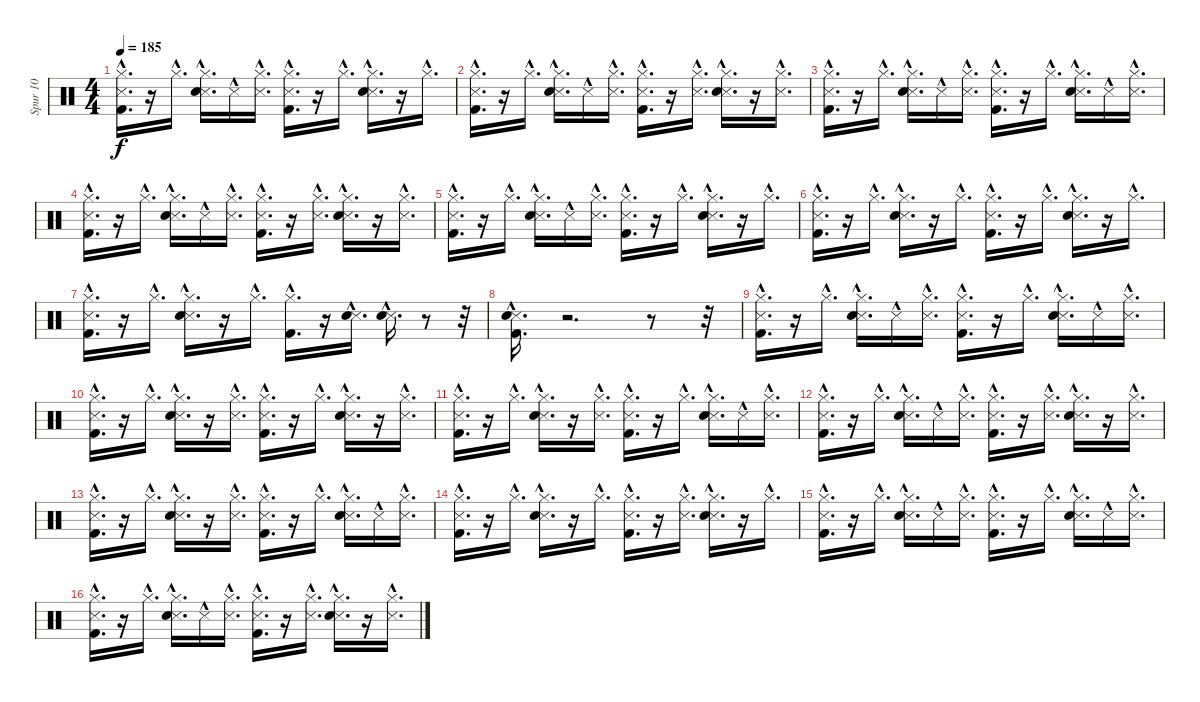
\track ("Spur 10" "Spur 10") {instrument percussion}
\staff {score}
\articulation defaults
\ts (4 4)
\tempo 185
\clef neutral
\ks c
("Metronome (hit)"{hac} "Hi-Hat (closed)"{hac} "Kick (hit) 2"{hac}).16{d dy f} r.16 "Hi-Hat (closed)"{hac}.16{d} ("Metronome (hit)"{hac} "Hi-Hat (closed)"{hac} "Snare (hit) 2"{hac}).16{d} "Metronome (hit)"{hac}.16 ("Metronome (hit)"{hac} "Hi-Hat (closed)"{hac}).16{d} ("Metronome (hit)"{hac} "Hi-Hat (closed)"{hac} "Kick (hit) 2"{hac}).16{d} r.16 "Hi-Hat (closed)"{hac}.16{d} ("Metronome (hit)"{hac} "Hi-Hat (closed)"{hac} "Snare (hit) 2"{hac}).16{d} r.16 "Hi-Hat (closed)"{hac}.16{d} |
("Metronome (hit)"{hac} "Kick (hit) 2"{hac} "Hi-Hat (closed)"{hac}).16{d} r.16 "Hi-Hat (closed)"{hac}.16{d} ("Metronome (hit)"{hac} "Snare (hit) 2"{hac} "Hi-Hat (closed)"{hac}).16{d} "Metronome (hit)"{hac}.16 ("Metronome (hit)"{hac} "Hi-Hat (closed)"{hac}).16{d} ("Metronome (hit)"{hac} "Kick (hit) 2"{hac} "Hi-Hat (closed)"{hac}).16{d} r.16 ("Metronome (hit)"{hac} "Hi-Hat (closed)"{hac}).16{d} ("Metronome (hit)"{hac} "Snare (hit) 2"{hac} "Hi-Hat (closed)"{hac}).16{d} r.16 ("Metronome (hit)"{hac} "Hi-Hat (closed)"{hac}).16{d} |
("Metronome (hit)"{hac} "Kick (hit) 2"{hac} "Hi-Hat (closed)"{hac}).16{d} r.16 "Hi-Hat (closed)"{hac}.16{d} ("Metronome (hit)"{hac} "Snare (hit) 2"{hac} "Hi-Hat (closed)"{hac}).16{d} "Metronome (hit)"{hac}.16 ("Metronome (hit)"{hac} "Hi-Hat (closed)"{hac}).16{d} ("Metronome (hit)"{hac} "Kick (hit) 2"{hac} "Hi-Hat (closed)"{hac}).16{d} r.16 "Hi-Hat (closed)"{hac}.16{d} ("Metronome (hit)"{hac} "Snare (hit) 2"{hac} "Hi-Hat (closed)"{hac}).16{d} "Metronome (hit)"{hac}.16 ("Metronome (hit)"{hac} "Hi-Hat (closed)"{hac}).16{d} |
("Metronome (hit)"{hac} "Kick (hit) 2"{hac} "Hi-Hat (closed)"{hac}).16{d} r.16 "Hi-Hat (closed)"{hac}.16{d} ("Metronome (hit)"{hac} "Snare (hit) 2"{hac} "Hi-Hat (closed)"{hac}).16{d} "Metronome (hit)"{hac}.16 ("Metronome (hit)"{hac} "Hi-Hat (closed)"{hac}).16{d} ("Metronome (hit)"{hac} "Kick (hit) 2"{hac} "Hi-Hat (closed)"{hac}).16{d} r.16 ("Metronome (hit)"{hac} "Hi-Hat (closed)"{hac}).16{d} ("Metronome (hit)"{hac} "Snare (hit) 2"{hac} "Hi-Hat (closed)"{hac}).16{d} r.16 ("Metronome (hit)"{hac} "Hi-Hat (closed)"{hac}).16{d} |
("Metronome (hit)"{hac} "Hi-Hat (closed)"{hac} "Kick (hit) 2"{hac}).16{d} r.16 "Hi-Hat (closed)"{hac}.16{d} ("Metronome (hit)"{hac} "Hi-Hat (closed)"{hac} "Snare (hit) 2"{hac}).16{d} "Metronome (hit)"{hac}.16 ("Metronome (hit)"{hac} "Hi-Hat (closed)"{hac}).16{d} ("Metronome (hit)"{hac} "Hi-Hat (closed)"{hac} "Kick (hit) 2"{hac}).16{d} r.16 "Hi-Hat (closed)"{hac}.16{d} ("Metronome (hit)"{hac} "Hi-Hat (closed)"{hac} "Snare (hit) 2"{hac}).16{d} r.16 "Hi-Hat (closed)"{hac}.16{d} |
("Metronome (hit)"{hac} "Kick (hit) 2"{hac} "Hi-Hat (closed)"{hac}).16{d} r.16 "Hi-Hat (closed)"{hac}.16{d} ("Metronome (hit)"{hac} "Snare (hit) 2"{hac} "Hi-Hat (closed)"{hac}).16{d} r.16 "Hi-Hat (closed)"{hac}.16{d} ("Metronome (hit)"{hac} "Kick (hit) 2"{hac} "Hi-Hat (closed)"{hac}).16{d} r.16 "Hi-Hat (closed)"{hac}.16{d} ("Metronome (hit)"{hac} "Snare (hit) 2"{hac} "Hi-Hat (closed)"{hac}).16{d} r.16 "Hi-Hat (closed)"{hac}.16{d} |
("Metronome (hit)"{hac} "Kick (hit) 2"{hac} "Hi-Hat (closed)"{hac}).16{d} r.16 "Hi-Hat (closed)"{hac}.16{d} ("Metronome (hit)"{hac} "Snare (hit) 2"{hac} "Hi-Hat (closed)"{hac}).16{d} r.16 "Hi-Hat (closed)"{hac}.16{d} ("Kick (hit) 2"{hac} "Hi-Hat (closed)"{hac}).16{d} r.16 ("Metronome (hit)"{hac} "Snare (hit) 2"{hac}).16{d} ("Metronome (hit)"{hac} "Snare (hit) 2"{hac}).16{d} r.8 r.32 |
("Metronome (hit)"{hac} "Snare (hit) 2"{hac} "Kick (hit) 2"{hac}).16{d} r.2{d} r.8 r.32 |
("Metronome (hit)"{hac} "Hi-Hat (closed)"{hac} "Kick (hit) 2"{hac}).16{d} r.16 "Hi-Hat (closed)"{hac}.16{d} ("Metronome (hit)"{hac} "Hi-Hat (closed)"{hac} "Snare (hit) 2"{hac}).16{d} "Metronome (hit)"{hac}.16 ("Metronome (hit)"{hac} "Hi-Hat (closed)"{hac}).16{d} ("Metronome (hit)"{hac} "Hi-Hat (closed)"{hac} "Kick (hit) 2"{hac}).16{d} r.16 "Hi-Hat (closed)"{hac}.16{d} ("Metronome (hit)"{hac} "Hi-Hat (closed)"{hac} "Snare (hit) 2"{hac}).16{d} "Metronome (hit)"{hac}.16 ("Metronome (hit)"{hac} "Hi-Hat (closed)"{hac}).16{d} |
("Metronome (hit)"{hac} "Kick (hit) 2"{hac} "Hi-Hat (closed)"{hac}).16{d} r.16 "Hi-Hat (closed)"{hac}.16{d} ("Metronome (hit)"{hac} "Snare (hit) 2"{hac} "Hi-Hat (closed)"{hac}).16{d} r.16 ("Metronome (hit)"{hac} "Hi-Hat (closed)"{hac}).16{d} ("Metronome (hit)"{hac} "Kick (hit) 2"{hac} "Hi-Hat (closed)"{hac}).16{d} r.16 "Hi-Hat (closed)"{hac}.16{d} ("Metronome (hit)"{hac} "Snare (hit) 2"{hac} "Hi-Hat (closed)"{hac}).16{d} r.16 ("Metronome (hit)"{hac} "Hi-Hat (closed)"{hac}).16{d} |
("Metronome (hit)"{hac} "Kick (hit) 2"{hac} "Hi-Hat (closed)"{hac}).16{d} r.16 "Hi-Hat (closed)"{hac}.16{d} ("Metronome (hit)"{hac} "Snare (hit) 2"{hac} "Hi-Hat (closed)"{hac}).16{d} r.16 ("Metronome (hit)"{hac} "Hi-Hat (closed)"{hac}).16{d} ("Metronome (hit)"{hac} "Kick (hit) 2"{hac} "Hi-Hat (closed)"{hac}).16{d} r.16 "Hi-Hat (closed)"{hac}.16{d} ("Metronome (hit)"{hac} "Snare (hit) 2"{hac} "Hi-Hat (closed)"{hac}).16{d} "Metronome (hit)"{hac}.16 ("Metronome (hit)"{hac} "Hi-Hat (closed)"{hac}).16{d} |
("Metronome (hit)"{hac} "Kick (hit) 2"{hac} "Hi-Hat (closed)"{hac}).16{d} r.16 "Hi-Hat (closed)"{hac}.16{d} ("Metronome (hit)"{hac} "Snare (hit) 2"{hac} "Hi-Hat (closed)"{hac}).16{d} "Metronome (hit)"{hac}.16 ("Metronome (hit)"{hac} "Hi-Hat (closed)"{hac}).16{d} ("Metronome (hit)"{hac} "Kick (hit) 2"{hac} "Hi-Hat (closed)"{hac}).16{d} r.16 ("Metronome (hit)"{hac} "Hi-Hat (closed)"{hac}).16{d} ("Metronome (hit)"{hac} "Snare (hit) 2"{hac} "Hi-Hat (closed)"{hac}).16{d} r.16 ("Metronome (hit)"{hac} "Hi-Hat (closed)"{hac}).16{d} |
("Metronome (hit)"{hac} "Hi-Hat (closed)"{hac} "Kick (hit) 2"{hac}).16{d} r.16 "Hi-Hat (closed)"{hac}.16{d} ("Metronome (hit)"{hac} "Hi-Hat (closed)"{hac} "Snare (hit) 2"{hac}).16{d} r.16 ("Metronome (hit)"{hac} "Hi-Hat (closed)"{hac}).16{d} ("Metronome (hit)"{hac} "Hi-Hat (closed)"{hac} "Kick (hit) 2"{hac}).16{d} r.16 "Hi-Hat (closed)"{hac}.16{d} ("Metronome (hit)"{hac} "Hi-Hat (closed)"{hac} "Snare (hit) 2"{hac}).16{d} "Metronome (hit)"{hac}.16 ("Metronome (hit)"{hac} "Hi-Hat (closed)"{hac}).16{d} |
("Metronome (hit)"{hac} "Kick (hit) 2"{hac} "Hi-Hat (closed)"{hac}).16{d} r.16 "Hi-Hat (closed)"{hac}.16{d} ("Metronome (hit)"{hac} "Snare (hit) 2"{hac} "Hi-Hat (closed)"{hac}).16{d} r.16 "Hi-Hat (closed)"{hac}.16{d} ("Metronome (hit)"{hac} "Kick (hit) 2"{hac} "Hi-Hat (closed)"{hac}).16{d} r.16 ("Metronome (hit)"{hac} "Hi-Hat (closed)"{hac}).16{d} ("Metronome (hit)"{hac} "Snare (hit) 2"{hac} "Hi-Hat (closed)"{hac}).16{d} r.16 "Hi-Hat (closed)"{hac}.16{d} |
("Metronome (hit)"{hac} "Kick (hit) 2"{hac} "Hi-Hat (closed)"{hac}).16{d} r.16 "Hi-Hat (closed)"{hac}.16{d} ("Metronome (hit)"{hac} "Snare (hit) 2"{hac} "Hi-Hat (closed)"{hac}).16{d} "Metronome (hit)"{hac}.16 ("Metronome (hit)"{hac} "Hi-Hat (closed)"{hac}).16{d} ("Metronome (hit)"{hac} "Kick (hit) 2"{hac} "Hi-Hat (closed)"{hac}).16{d} r.16 "Hi-Hat (closed)"{hac}.16{d} ("Metronome (hit)"{hac} "Snare (hit) 2"{hac} "Hi-Hat (closed)"{hac}).16{d} "Metronome (hit)"{hac}.16 ("Metronome (hit)"{hac} "Hi-Hat (closed)"{hac}).16{d} |
("Metronome (hit)"{hac} "Kick (hit) 2"{hac} "Hi-Hat (closed)"{hac}).16{d} r.16 "Hi-Hat (closed)"{hac}.16{d} ("Metronome (hit)"{hac} "Snare (hit) 2"{hac} "Hi-Hat (closed)"{hac}).16{d} "Metronome (hit)"{hac}.16 ("Metronome (hit)"{hac} "Hi-Hat (closed)"{hac}).16{d} ("Metronome (hit)"{hac} "Kick (hit) 2"{hac} "Hi-Hat (closed)"{hac}).16{d} r.16 ("Metronome (hit)"{hac} "Hi-Hat (closed)"{hac}).16{d} ("Metronome (hit)"{hac} "Snare (hit) 2"{hac} "Hi-Hat (closed)"{hac}).16{d} r.16 ("Metronome (hit)"{hac} "Hi-Hat (closed)"{hac}).16{d}
